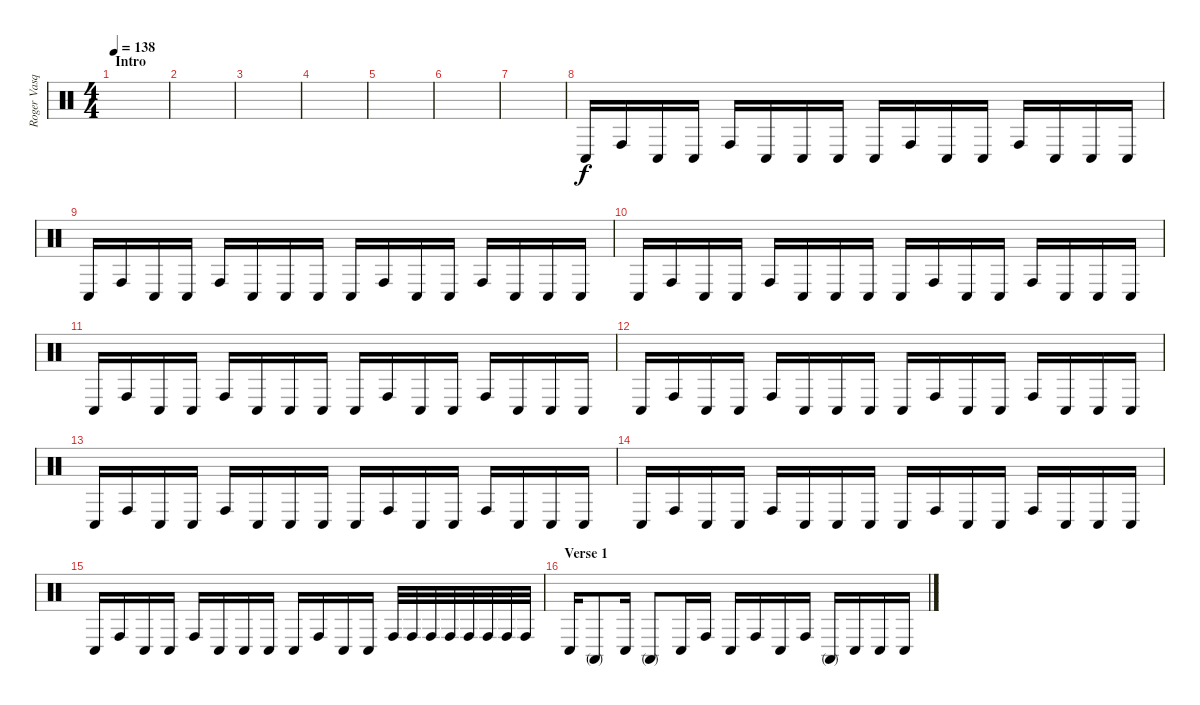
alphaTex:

\track ("Roger Vasquez - Percussion" "Roger Vasq") {instrument percussion}
\staff {score}
\articulation defaults
\ts (4 4)
\section ("" "Intro")
\tempo 138
\clef neutral
\ks c
|
|
|
|
|
|
|
"Conga low (hit)".16 "Conga high (hit)".16 "Conga low (hit)".16 "Conga low (hit)".16 "Conga high (hit)".16 "Conga low (hit)".16 "Conga low (hit)".16 "Conga low (hit)".16 "Conga low (hit)".16 "Conga high (hit)".16 "Conga low (hit)".16 "Conga low (hit)".16 "Conga high (hit)".16 "Conga low (hit)".16 "Conga low (hit)".16 "Conga low (hit)".16 |
"Conga low (hit)".16 "Conga high (hit)".16 "Conga low (hit)".16 "Conga low (hit)".16 "Conga high (hit)".16 "Conga low (hit)".16 "Conga low (hit)".16 "Conga low (hit)".16 "Conga low (hit)".16 "Conga high (hit)".16 "Conga low (hit)".16 "Conga low (hit)".16 "Conga high (hit)".16 "Conga low (hit)".16 "Conga low (hit)".16 "Conga low (hit)".16 |
"Conga low (hit)".16 "Conga high (hit)".16 "Conga low (hit)".16 "Conga low (hit)".16 "Conga high (hit)".16 "Conga low (hit)".16 "Conga low (hit)".16 "Conga low (hit)".16 "Conga low (hit)".16 "Conga high (hit)".16 "Conga low (hit)".16 "Conga low (hit)".16 "Conga high (hit)".16 "Conga low (hit)".16 "Conga low (hit)".16 "Conga low (hit)".16 |
"Conga low (hit)".16 "Conga high (hit)".16 "Conga low (hit)".16 "Conga low (hit)".16 "Conga high (hit)".16 "Conga low (hit)".16 "Conga low (hit)".16 "Conga low (hit)".16 "Conga low (hit)".16 "Conga high (hit)".16 "Conga low (hit)".16 "Conga low (hit)".16 "Conga high (hit)".16 "Conga low (hit)".16 "Conga low (hit)".16 "Conga low (hit)".16 |
"Conga low (hit)".16 "Conga high (hit)".16 "Conga low (hit)".16 "Conga low (hit)".16 "Conga high (hit)".16 "Conga low (hit)".16 "Conga low (hit)".16 "Conga low (hit)".16 "Conga low (hit)".16 "Conga high (hit)".16 "Conga low (hit)".16 "Conga low (hit)".16 "Conga high (hit)".16 "Conga low (hit)".16 "Conga low (hit)".16 "Conga low (hit)".16 |
"Conga low (hit)".16 "Conga high (hit)".16 "Conga low (hit)".16 "Conga low (hit)".16 "Conga high (hit)".16 "Conga low (hit)".16 "Conga low (hit)".16 "Conga low (hit)".16 "Conga low (hit)".16 "Conga high (hit)".16 "Conga low (hit)".16 "Conga low (hit)".16 "Conga high (hit)".16 "Conga low (hit)".16 "Conga low (hit)".16 "Conga low (hit)".16 |
"Conga low (hit)".16 "Conga high (hit)".16 "Conga low (hit)".16 "Conga low (hit)".16 "Conga high (hit)".16 "Conga low (hit)".16 "Conga low (hit)".16 "Conga low (hit)".16 "Conga low (hit)".16 "Conga high (hit)".16 "Conga low (hit)".16 "Conga low (hit)".16 "Conga high (hit)".16 "Conga low (hit)".16 "Conga low (hit)".16 "Conga low (hit)".16 |
"Conga low (hit)".16 "Conga high (hit)".16 "Conga low (hit)".16 "Conga low (hit)".16 "Conga high (hit)".16 "Conga low (hit)".16 "Conga low (hit)".16 "Conga low (hit)".16 "Conga low (hit)".16 "Conga high (hit)".16 "Conga low (hit)".16 "Conga low (hit)".16 "Conga high (hit)".32 "Conga high (hit)".32 "Conga high (hit)".32 "Conga high (hit)".32 "Conga high (hit)".32 "Conga high (hit)".32 "Conga high (hit)".32 "Conga high (hit)".32 |
\section ("" "Verse 1")
"Conga low (hit)".16 "Conga high (mute)".8 "Conga low (hit)".16 "Conga high (mute)".8 "Conga low (hit)".16 "Conga high (hit)".16 "Conga low (hit)".16 "Conga high (hit)".16 "Conga low (hit)".16 "Conga high (hit)".16 "Conga high (mute)".16 "Conga low (hit)".16 "Conga low (hit)".16 "Conga low (hit)".16
